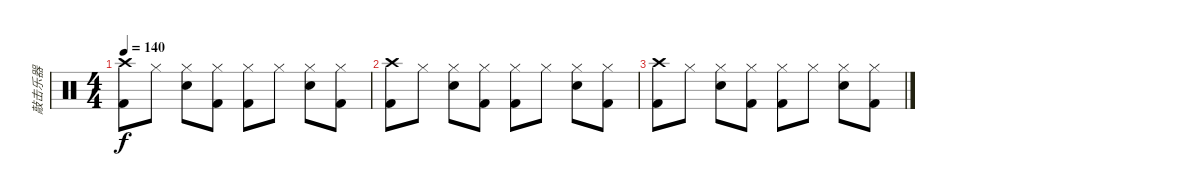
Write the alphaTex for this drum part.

\track ("敲击乐器" "敲击乐器") {instrument percussion}
\staff {score}
\articulation defaults
\ts (4 4)
\tempo 140
\clef neutral
\ks c
("Crash high (hit)" "Kick (hit) 2").8{dy f} "Hi-Hat (closed)".8 ("Hi-Hat (closed)" "Snare (hit) 2").8 ("Hi-Hat (closed)" "Kick (hit) 2").8 ("Hi-Hat (closed)" "Kick (hit) 2").8 "Hi-Hat (closed)".8 ("Hi-Hat (closed)" "Snare (hit) 2").8 ("Hi-Hat (closed)" "Kick (hit) 2").8 |
("Crash high (hit)" "Kick (hit) 2").8 "Hi-Hat (closed)".8 ("Hi-Hat (closed)" "Snare (hit) 2").8 ("Hi-Hat (closed)" "Kick (hit) 2").8 ("Hi-Hat (closed)" "Kick (hit) 2").8 "Hi-Hat (closed)".8 ("Hi-Hat (closed)" "Snare (hit) 2").8 ("Hi-Hat (closed)" "Kick (hit) 2").8 |
("Crash high (hit)" "Kick (hit) 2").8 "Hi-Hat (closed)".8 ("Hi-Hat (closed)" "Snare (hit) 2").8 ("Hi-Hat (closed)" "Kick (hit) 2").8 ("Hi-Hat (closed)" "Kick (hit) 2").8 "Hi-Hat (closed)".8 ("Hi-Hat (closed)" "Snare (hit) 2").8 ("Hi-Hat (closed)" "Kick (hit) 2").8
